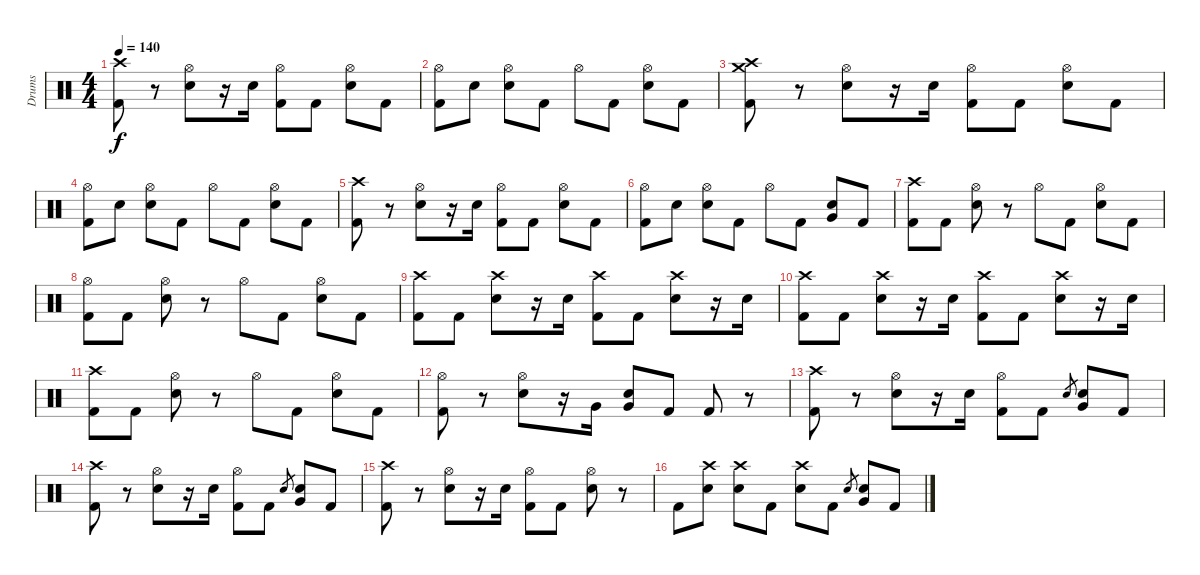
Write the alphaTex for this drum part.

\track ("Drums" "Drums") {instrument percussion}
\staff {score}
\articulation defaults
\ts (4 4)
\tempo 140
\clef neutral
\ks c
("Crash high (hit)" "Kick (hit) 2").8{dy f} r.8 ("Hi-Hat (open)" "Electric Snare (hit)").8 r.16 "Electric Snare (hit)".16 ("Hi-Hat (open)" "Kick (hit) 2").8 "Kick (hit) 2".8 ("Hi-Hat (open)" "Electric Snare (hit)").8 "Kick (hit) 2".8 |
("Hi-Hat (open)" "Kick (hit) 2").8 "Electric Snare (hit)".8 ("Hi-Hat (open)" "Electric Snare (hit)").8 "Kick (hit) 2".8 "Hi-Hat (open)".8 "Kick (hit) 2".8 ("Hi-Hat (open)" "Electric Snare (hit)").8 "Kick (hit) 2".8 |
("Crash high (hit)" "Crash medium (hit)" "Kick (hit) 2").8 r.8 ("Hi-Hat (open)" "Electric Snare (hit)").8 r.16 "Electric Snare (hit)".16 ("Hi-Hat (open)" "Kick (hit) 2").8 "Kick (hit) 2".8 ("Hi-Hat (open)" "Electric Snare (hit)").8 "Kick (hit) 2".8 |
("Hi-Hat (open)" "Kick (hit) 2").8 "Electric Snare (hit)".8 ("Hi-Hat (open)" "Electric Snare (hit)").8 "Kick (hit) 2".8 "Hi-Hat (open)".8 "Kick (hit) 2".8 ("Hi-Hat (open)" "Electric Snare (hit)").8 "Kick (hit) 2".8 |
("Crash high (hit)" "Kick (hit) 2").8 r.8 ("Hi-Hat (open)" "Electric Snare (hit)").8 r.16 "Electric Snare (hit)".16 ("Hi-Hat (open)" "Kick (hit) 2").8 "Kick (hit) 2".8 ("Hi-Hat (open)" "Electric Snare (hit)").8 "Kick (hit) 2".8 |
("Hi-Hat (open)" "Kick (hit) 2").8 "Electric Snare (hit)".8 ("Hi-Hat (open)" "Electric Snare (hit)").8 "Kick (hit) 2".8 "Hi-Hat (open)".8 "Kick (hit) 2".8 ("Very Low Tom (hit)" "Electric Snare (hit)").8 "Kick (hit) 2".8 |
("Crash high (hit)" "Kick (hit) 2").8 "Kick (hit) 2".8 ("Hi-Hat (open)" "Electric Snare (hit)").8 r.8 "Hi-Hat (open)".8 "Kick (hit) 2".8 ("Hi-Hat (open)" "Electric Snare (hit)").8 "Kick (hit) 2".8 |
("Hi-Hat (open)" "Kick (hit) 2").8 "Kick (hit) 2".8 ("Hi-Hat (open)" "Electric Snare (hit)").8 r.8 "Hi-Hat (open)".8 "Kick (hit) 2".8 ("Hi-Hat (open)" "Electric Snare (hit)").8 "Kick (hit) 2".8 |
("Crash high (hit)" "Kick (hit) 2").8 "Kick (hit) 2".8 ("Crash high (hit)" "Electric Snare (hit)").8 r.16 "Electric Snare (hit)".16 ("Crash high (hit)" "Kick (hit) 2").8 "Kick (hit) 2".8 ("Crash high (hit)" "Electric Snare (hit)").8 r.16 "Electric Snare (hit)".16 |
("Crash high (hit)" "Kick (hit) 2").8 "Kick (hit) 2".8 ("Crash high (hit)" "Electric Snare (hit)").8 r.16 "Electric Snare (hit)".16 ("Crash high (hit)" "Kick (hit) 2").8 "Kick (hit) 2".8 ("Crash high (hit)" "Electric Snare (hit)").8 r.16 "Electric Snare (hit)".16 |
("Crash high (hit)" "Kick (hit) 2").8 "Kick (hit) 2".8 ("Hi-Hat (open)" "Electric Snare (hit)").8 r.8 "Hi-Hat (open)".8 "Kick (hit) 2".8 ("Hi-Hat (open)" "Electric Snare (hit)").8 "Kick (hit) 2".8 |
("Hi-Hat (open)" "Kick (hit) 2").8 r.8 ("Hi-Hat (open)" "Electric Snare (hit)").8 r.16 "Very Low Tom (hit)".16 ("Very Low Tom (hit)" "Electric Snare (hit)").8 "Kick (hit) 2".8 "Kick (hit) 2".8 r.8 |
("Crash high (hit)" "Kick (hit) 2").8 r.8 ("Hi-Hat (open)" "Electric Snare (hit)").8 r.16 "Electric Snare (hit)".16 ("Hi-Hat (open)" "Kick (hit) 2").8 "Kick (hit) 2".8 "Electric Snare (hit)".8{gr} ("Very Low Tom (hit)" "Electric Snare (hit)").8 "Kick (hit) 2".8 |
("Crash high (hit)" "Kick (hit) 2").8 r.8 ("Hi-Hat (open)" "Electric Snare (hit)").8 r.16 "Electric Snare (hit)".16 ("Hi-Hat (open)" "Kick (hit) 2").8 "Kick (hit) 2".8 "Electric Snare (hit)".8{gr} ("Very Low Tom (hit)" "Electric Snare (hit)").8 "Kick (hit) 2".8 |
("Crash high (hit)" "Kick (hit) 2").8 r.8 ("Hi-Hat (open)" "Electric Snare (hit)").8 r.16 "Electric Snare (hit)".16 ("Hi-Hat (open)" "Kick (hit) 2").8 "Kick (hit) 2".8 ("Hi-Hat (open)" "Electric Snare (hit)").8 r.8 |
"Kick (hit) 2".8 ("Crash high (hit)" "Electric Snare (hit)").8 ("Crash high (hit)" "Electric Snare (hit)").8 "Kick (hit) 2".8 ("Crash high (hit)" "Electric Snare (hit)").8 "Kick (hit) 2".8 "Electric Snare (hit)".8{gr} ("Very Low Tom (hit)" "Electric Snare (hit)").8 "Kick (hit) 2".8
